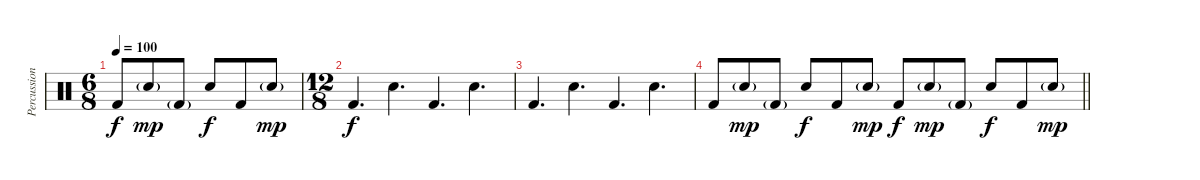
\track ("Percussion" "Percussion") {instrument percussion}
\staff {score}
\articulation defaults
\ts (6 8)
\tempo 100
\clef neutral
\ks c "Kick (hit) 2".8{dy f} "Snare (hit) 2"{g}.8{dy mp} "Kick (hit) 2"{g}.8 "Snare (hit) 2".8{dy f} "Kick (hit) 2".8 "Snare (hit) 2"{g}.8{dy mp}
|
\ts (12 8)
"Kick (hit) 2".4{d dy f} "Snare (hit) 2".4{d} "Kick (hit) 2".4{d} "Snare (hit) 2".4{d} |
"Kick (hit) 2".4{d} "Snare (hit) 2".4{d} "Kick (hit) 2".4{d} "Snare (hit) 2".4{d} |
\barLineRight lightlight "Kick (hit) 2".8 "Snare (hit) 2"{g}.8{dy mp} "Kick (hit) 2"{g}.8 "Snare (hit) 2".8{dy f} "Kick (hit) 2".8 "Snare (hit) 2"{g}.8{dy mp} "Kick (hit) 2".8{dy f} "Snare (hit) 2"{g}.8{dy mp} "Kick (hit) 2"{g}.8 "Snare (hit) 2".8{dy f} "Kick (hit) 2".8 "Snare (hit) 2"{g}.8{dy mp}
